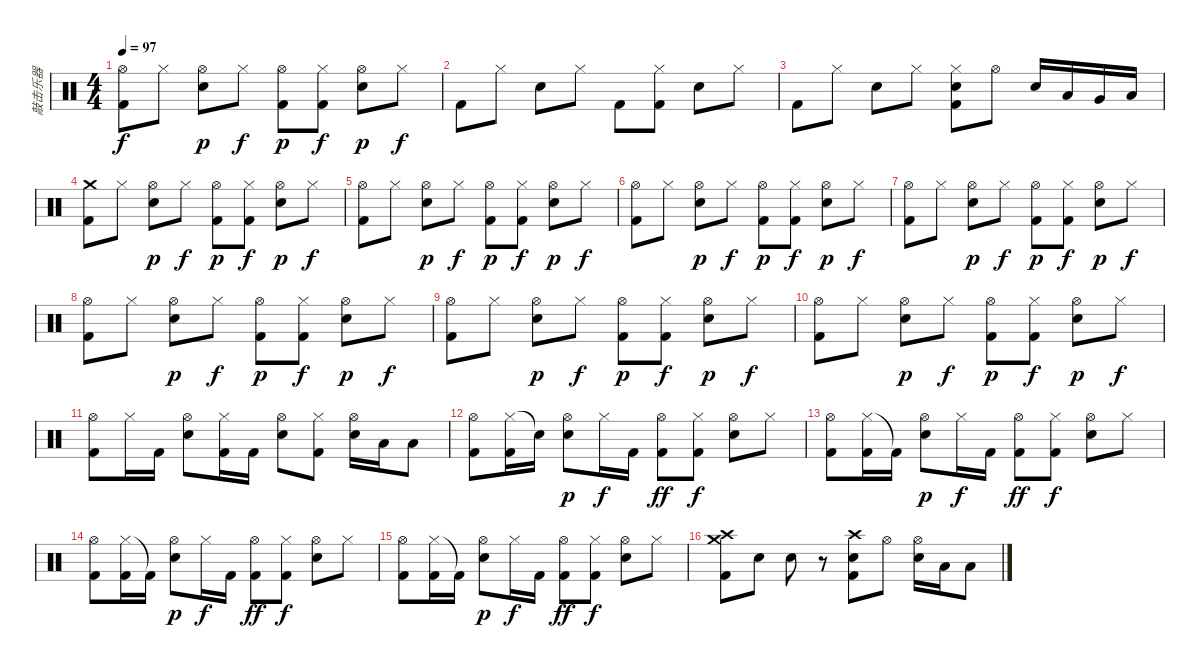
\track ("敲击乐器" "敲击乐器") {instrument percussion}
\staff {score}
\articulation defaults
\ts (4 4)
\tempo 97
\clef neutral
\ks c
("Hi-Hat (open)" "Kick (hit) 2").8{dy f} "Hi-Hat (closed)".8 ("Hi-Hat (open)" "Snare (hit) 2").8{dy p} "Hi-Hat (closed)".8{dy f} ("Hi-Hat (open)" "Kick (hit) 2").8{dy p} ("Hi-Hat (closed)" "Kick (hit) 2").8{dy f} ("Hi-Hat (open)" "Snare (hit) 2").8{dy p} "Hi-Hat (closed)".8{dy f} |
"Kick (hit) 2".8 "Hi-Hat (closed)".8 "Snare (hit) 2".8 "Hi-Hat (closed)".8 "Kick (hit) 2".8 ("Hi-Hat (closed)" "Kick (hit) 2").8 "Snare (hit) 2".8 "Hi-Hat (closed)".8 |
"Kick (hit) 2".8 "Hi-Hat (closed)".8 "Snare (hit) 2".8 "Hi-Hat (closed)".8 ("Hi-Hat (closed)" "Snare (hit) 2" "Kick (hit) 2").8 "Hi-Hat (open)".8 "Snare (hit) 2".16 "Low Tom (hit)".16 "Very Low Tom (hit)".16 "Low Floor Tom (hit)".16 |
("Crash medium (hit)" "Kick (hit) 2").8 "Hi-Hat (closed)".8 ("Hi-Hat (open)" "Snare (hit) 2").8{dy p} "Hi-Hat (closed)".8{dy f} ("Hi-Hat (open)" "Kick (hit) 2").8{dy p} ("Hi-Hat (closed)" "Kick (hit) 2").8{dy f} ("Hi-Hat (open)" "Snare (hit) 2").8{dy p} "Hi-Hat (closed)".8{dy f} |
("Hi-Hat (open)" "Kick (hit) 2").8 "Hi-Hat (closed)".8 ("Hi-Hat (open)" "Snare (hit) 2").8{dy p} "Hi-Hat (closed)".8{dy f} ("Hi-Hat (open)" "Kick (hit) 2").8{dy p} ("Hi-Hat (closed)" "Kick (hit) 2").8{dy f} ("Hi-Hat (open)" "Snare (hit) 2").8{dy p} "Hi-Hat (closed)".8{dy f} |
("Hi-Hat (open)" "Kick (hit) 2").8 "Hi-Hat (closed)".8 ("Hi-Hat (open)" "Snare (hit) 2").8{dy p} "Hi-Hat (closed)".8{dy f} ("Hi-Hat (open)" "Kick (hit) 2").8{dy p} ("Hi-Hat (closed)" "Kick (hit) 2").8{dy f} ("Hi-Hat (open)" "Snare (hit) 2").8{dy p} "Hi-Hat (closed)".8{dy f} |
("Hi-Hat (open)" "Kick (hit) 2").8 "Hi-Hat (closed)".8 ("Hi-Hat (open)" "Snare (hit) 2").8{dy p} "Hi-Hat (closed)".8{dy f} ("Hi-Hat (open)" "Kick (hit) 2").8{dy p} ("Hi-Hat (closed)" "Kick (hit) 2").8{dy f} ("Hi-Hat (open)" "Snare (hit) 2").8{dy p} "Hi-Hat (closed)".8{dy f} |
("Hi-Hat (open)" "Kick (hit) 2").8 "Hi-Hat (closed)".8 ("Hi-Hat (open)" "Snare (hit) 2").8{dy p} "Hi-Hat (closed)".8{dy f} ("Hi-Hat (open)" "Kick (hit) 2").8{dy p} ("Hi-Hat (closed)" "Kick (hit) 2").8{dy f} ("Hi-Hat (open)" "Snare (hit) 2").8{dy p} "Hi-Hat (closed)".8{dy f} |
("Hi-Hat (open)" "Kick (hit) 2").8 "Hi-Hat (closed)".8 ("Hi-Hat (open)" "Snare (hit) 2").8{dy p} "Hi-Hat (closed)".8{dy f} ("Hi-Hat (open)" "Kick (hit) 2").8{dy p} ("Hi-Hat (closed)" "Kick (hit) 2").8{dy f} ("Hi-Hat (open)" "Snare (hit) 2").8{dy p} "Hi-Hat (closed)".8{dy f} |
("Hi-Hat (open)" "Kick (hit) 2").8 "Hi-Hat (closed)".8 ("Hi-Hat (open)" "Snare (hit) 2").8{dy p} "Hi-Hat (closed)".8{dy f} ("Hi-Hat (open)" "Kick (hit) 2").8{dy p} ("Hi-Hat (closed)" "Kick (hit) 2").8{dy f} ("Hi-Hat (open)" "Snare (hit) 2").8{dy p} "Hi-Hat (closed)".8{dy f} |
("Hi-Hat (open)" "Kick (hit) 2").8 "Hi-Hat (closed)".16 "Kick (hit) 2".16 ("Hi-Hat (open)" "Snare (hit) 2").8 ("Hi-Hat (closed)" "Kick (hit) 2").16 "Kick (hit) 2".16 ("Hi-Hat (open)" "Snare (hit) 2").8 ("Hi-Hat (closed)" "Kick (hit) 2").8 ("Hi-Hat (open)" "Snare (hit) 2").16 "Low Tom (hit)".16 "Low Floor Tom (hit)".8 |
("Hi-Hat (open)" "Kick (hit) 2").8 ("Hi-Hat (closed)" "Kick (hit) 2").16 "Snare (hit)"{t}.16 ("Hi-Hat (open)" "Snare (hit) 2").8{dy p} "Hi-Hat (closed)".16{dy f} "Kick (hit) 2".16 ("Hi-Hat (open)" "Kick (hit) 2").8{dy ff} ("Hi-Hat (closed)" "Kick (hit) 2").8{dy f} ("Hi-Hat (open)" "Snare (hit) 2").8 "Hi-Hat (closed)".8 |
("Hi-Hat (open)" "Kick (hit) 2").8 ("Hi-Hat (closed)" "Kick (hit) 2").16 "Kick (hit) 2"{t}.16 ("Hi-Hat (open)" "Snare (hit) 2").8{dy p} "Hi-Hat (closed)".16{dy f} "Kick (hit) 2".16 ("Hi-Hat (open)" "Kick (hit) 2").8{dy ff} ("Hi-Hat (closed)" "Kick (hit) 2").8{dy f} ("Hi-Hat (open)" "Snare (hit) 2").8 "Hi-Hat (closed)".8 |
("Hi-Hat (open)" "Kick (hit) 2").8 ("Hi-Hat (closed)" "Kick (hit) 2").16 "Kick (hit) 2"{t}.16 ("Hi-Hat (open)" "Snare (hit) 2").8{dy p} "Hi-Hat (closed)".16{dy f} "Kick (hit) 2".16 ("Hi-Hat (open)" "Kick (hit) 2").8{dy ff} ("Hi-Hat (closed)" "Kick (hit) 2").8{dy f} ("Hi-Hat (open)" "Snare (hit) 2").8 "Hi-Hat (closed)".8 |
("Hi-Hat (open)" "Kick (hit) 2").8 ("Hi-Hat (closed)" "Kick (hit) 2").16 "Kick (hit) 2"{t}.16 ("Hi-Hat (open)" "Snare (hit) 2").8{dy p} "Hi-Hat (closed)".16{dy f} "Kick (hit) 2".16 ("Hi-Hat (open)" "Kick (hit) 2").8{dy ff} ("Hi-Hat (closed)" "Kick (hit) 2").8{dy f} ("Hi-Hat (open)" "Snare (hit) 2").8 "Hi-Hat (closed)".8 |
("Crash high (hit)" "Crash medium (hit)" "Kick (hit) 2").8 "Snare (hit) 2".8 "Snare (hit) 2".8 r.8 ("Crash high (hit)" "Snare (hit) 2" "Kick (hit) 2").8 "Hi-Hat (open)".8 ("Hi-Hat (open)" "Snare (hit) 2").16 "Low Tom (hit)".16 "Low Floor Tom (hit)".8
